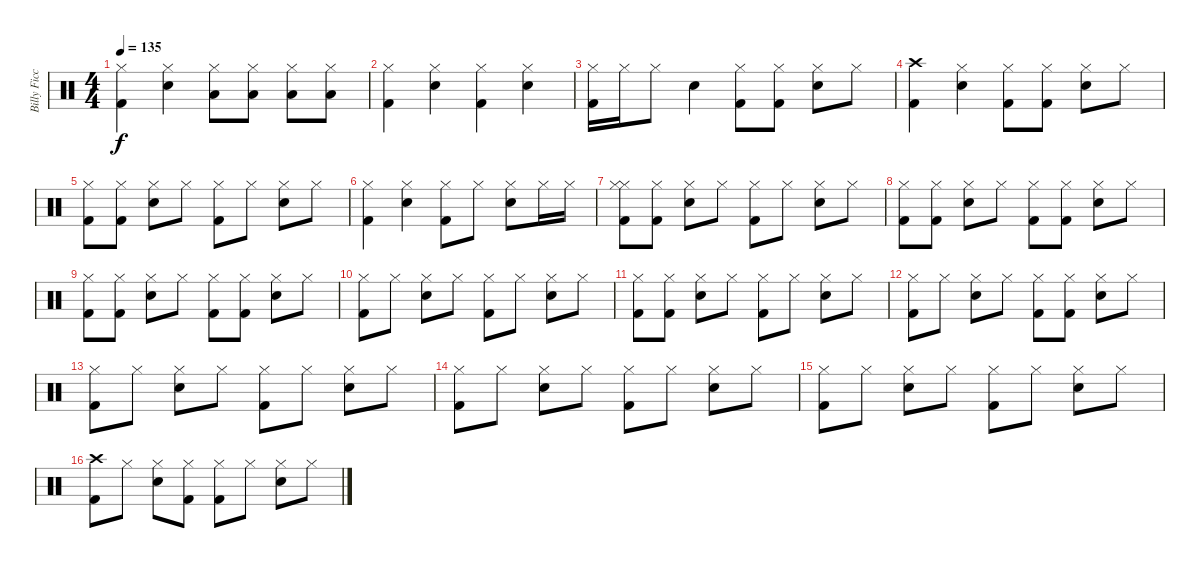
\track ("Billy Ficca" "Billy Ficc") {instrument percussion}
\staff {score}
\articulation defaults
\ts (4 4)
\tempo 135
\clef neutral
\ks c
("Kick (hit) 2" "Hi-Hat (closed)").4{dy f} ("Electric Snare (hit)" "Hi-Hat (closed)").4 ("Low Floor Tom (hit)" "Hi-Hat (closed)").8 ("Low Floor Tom (hit)" "Hi-Hat (closed)").8 ("Low Floor Tom (hit)" "Hi-Hat (closed)").8 ("Low Floor Tom (hit)" "Hi-Hat (closed)").8 |
("Kick (hit) 2" "Hi-Hat (closed)").4 ("Electric Snare (hit)" "Hi-Hat (closed)").4 ("Kick (hit) 2" "Hi-Hat (closed)").4 ("Electric Snare (hit)" "Hi-Hat (closed)").4 |
("Hi-Hat (closed)" "Kick (hit) 2").16 "Hi-Hat (closed)".16 "Hi-Hat (closed)".8 "Electric Snare (hit)".4 ("Kick (hit) 2" "Hi-Hat (closed)").8 ("Kick (hit) 2" "Hi-Hat (closed)").8 ("Electric Snare (hit)" "Hi-Hat (closed)").8 "Hi-Hat (closed)".8 |
("Kick (hit) 2" "Crash high (hit)").4 ("Electric Snare (hit)" "Hi-Hat (closed)").4 ("Kick (hit) 2" "Hi-Hat (closed)").8 ("Kick (hit) 2" "Hi-Hat (closed)").8 ("Electric Snare (hit)" "Hi-Hat (closed)").8 "Hi-Hat (closed)".8 |
("Kick (hit) 2" "Hi-Hat (closed)").8 ("Kick (hit) 2" "Hi-Hat (closed)").8 ("Electric Snare (hit)" "Hi-Hat (closed)").8 "Hi-Hat (closed)".8 ("Kick (hit) 2" "Hi-Hat (closed)").8 "Hi-Hat (closed)".8 ("Electric Snare (hit)" "Hi-Hat (closed)").8 "Hi-Hat (closed)".8 |
("Kick (hit) 2" "Hi-Hat (closed)").4 ("Electric Snare (hit)" "Hi-Hat (closed)").4 ("Kick (hit) 2" "Hi-Hat (closed)").8 "Hi-Hat (closed)".8 ("Electric Snare (hit)" "Hi-Hat (closed)").8 "Hi-Hat (closed)".16 "Hi-Hat (closed)".16 |
("Kick (hit) 2" "Hi-Hat (closed)" "Hi-Hat (closed)").8 ("Kick (hit) 2" "Hi-Hat (closed)").8 ("Electric Snare (hit)" "Hi-Hat (closed)").8 "Hi-Hat (closed)".8 ("Kick (hit) 2" "Hi-Hat (closed)").8 "Hi-Hat (closed)".8 ("Electric Snare (hit)" "Hi-Hat (closed)").8 "Hi-Hat (closed)".8 |
("Kick (hit) 2" "Hi-Hat (closed)").8 ("Kick (hit) 2" "Hi-Hat (closed)").8 ("Electric Snare (hit)" "Hi-Hat (closed)").8 "Hi-Hat (closed)".8 ("Kick (hit) 2" "Hi-Hat (closed)").8 ("Kick (hit) 2" "Hi-Hat (closed)").8 ("Electric Snare (hit)" "Hi-Hat (closed)").8 "Hi-Hat (closed)".8 |
("Kick (hit) 2" "Hi-Hat (closed)").8 ("Kick (hit) 2" "Hi-Hat (closed)").8 ("Electric Snare (hit)" "Hi-Hat (closed)").8 "Hi-Hat (closed)".8 ("Kick (hit) 2" "Hi-Hat (closed)").8 ("Kick (hit) 2" "Hi-Hat (closed)").8 ("Electric Snare (hit)" "Hi-Hat (closed)").8 "Hi-Hat (closed)".8 |
("Kick (hit) 2" "Hi-Hat (closed)").8 "Hi-Hat (closed)".8 ("Electric Snare (hit)" "Hi-Hat (closed)").8 "Hi-Hat (closed)".8 ("Kick (hit) 2" "Hi-Hat (closed)").8 "Hi-Hat (closed)".8 ("Electric Snare (hit)" "Hi-Hat (closed)").8 "Hi-Hat (closed)".8 |
("Kick (hit) 2" "Hi-Hat (closed)").8 ("Kick (hit) 2" "Hi-Hat (closed)").8 ("Electric Snare (hit)" "Hi-Hat (closed)").8 "Hi-Hat (closed)".8 ("Kick (hit) 2" "Hi-Hat (closed)").8 "Hi-Hat (closed)".8 ("Electric Snare (hit)" "Hi-Hat (closed)").8 "Hi-Hat (closed)".8 |
("Kick (hit) 2" "Hi-Hat (closed)").8 "Hi-Hat (closed)".8 ("Electric Snare (hit)" "Hi-Hat (closed)").8 "Hi-Hat (closed)".8 ("Kick (hit) 2" "Hi-Hat (closed)").8 ("Kick (hit) 2" "Hi-Hat (closed)").8 ("Electric Snare (hit)" "Hi-Hat (closed)").8 "Hi-Hat (closed)".8 |
("Kick (hit) 2" "Hi-Hat (closed)").8 "Hi-Hat (closed)".8 ("Electric Snare (hit)" "Hi-Hat (closed)").8 "Hi-Hat (closed)".8 ("Kick (hit) 2" "Hi-Hat (closed)").8 "Hi-Hat (closed)".8 ("Electric Snare (hit)" "Hi-Hat (closed)").8 "Hi-Hat (closed)".8 |
("Kick (hit) 2" "Hi-Hat (closed)").8 "Hi-Hat (closed)".8 ("Electric Snare (hit)" "Hi-Hat (closed)").8 "Hi-Hat (closed)".8 ("Kick (hit) 2" "Hi-Hat (closed)").8 "Hi-Hat (closed)".8 ("Electric Snare (hit)" "Hi-Hat (closed)").8 "Hi-Hat (closed)".8 |
("Kick (hit) 2" "Hi-Hat (closed)").8 "Hi-Hat (closed)".8 ("Electric Snare (hit)" "Hi-Hat (closed)").8 "Hi-Hat (closed)".8 ("Kick (hit) 2" "Hi-Hat (closed)").8 "Hi-Hat (closed)".8 ("Electric Snare (hit)" "Hi-Hat (closed)").8 "Hi-Hat (closed)".8 |
("Kick (hit) 2" "Crash high (hit)").8 "Hi-Hat (closed)".8 ("Electric Snare (hit)" "Hi-Hat (closed)").8 ("Kick (hit) 2" "Hi-Hat (closed)").8 ("Kick (hit) 2" "Hi-Hat (closed)").8 "Hi-Hat (closed)".8 ("Electric Snare (hit)" "Hi-Hat (closed)").8 "Hi-Hat (closed)".8
